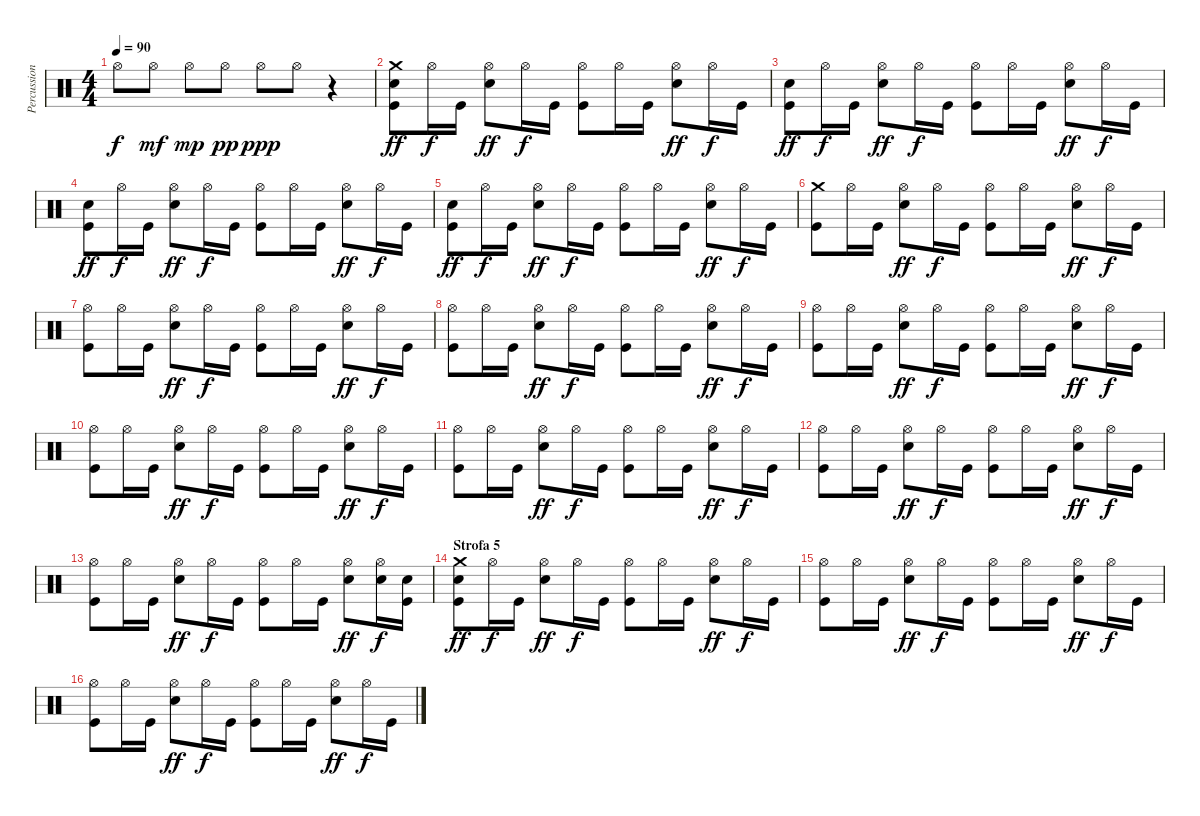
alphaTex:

\track ("Percussioni" "Percussion") {instrument percussion}
\staff {score}
\articulation defaults
\ts (4 4)
\tempo 90
\clef neutral
\ks c "Hi-Hat (open)".8{dy f} "Hi-Hat (open)".8{dy mf} "Hi-Hat (open)".8{dy mp} "Hi-Hat (open)".8{dy pp} "Hi-Hat (open)".8{dy ppp} "Hi-Hat (open)".8
r.4 |
("Crash medium (hit)" "Electric Snare (hit)" "Kick (hit)").8{dy ff} "Hi-Hat (open)".16{dy f} "Kick (hit)".16 ("Hi-Hat (open)" "Electric Snare (hit)").8{dy ff} "Hi-Hat (open)".16{dy f} "Kick (hit)".16 ("Hi-Hat (open)" "Kick (hit)").8 "Hi-Hat (open)".16 "Kick (hit)".16 ("Hi-Hat (open)" "Electric Snare (hit)").8{dy ff} "Hi-Hat (open)".16{dy f} "Kick (hit)".16 |
("Electric Snare (hit)" "Kick (hit)").8{dy ff} "Hi-Hat (open)".16{dy f} "Kick (hit)".16 ("Hi-Hat (open)" "Electric Snare (hit)").8{dy ff} "Hi-Hat (open)".16{dy f} "Kick (hit)".16 ("Hi-Hat (open)" "Kick (hit)").8 "Hi-Hat (open)".16 "Kick (hit)".16 ("Hi-Hat (open)" "Electric Snare (hit)").8{dy ff} "Hi-Hat (open)".16{dy f} "Kick (hit)".16 |
("Electric Snare (hit)" "Kick (hit)").8{dy ff} "Hi-Hat (open)".16{dy f} "Kick (hit)".16 ("Hi-Hat (open)" "Electric Snare (hit)").8{dy ff} "Hi-Hat (open)".16{dy f} "Kick (hit)".16 ("Hi-Hat (open)" "Kick (hit)").8 "Hi-Hat (open)".16 "Kick (hit)".16 ("Hi-Hat (open)" "Electric Snare (hit)").8{dy ff} "Hi-Hat (open)".16{dy f} "Kick (hit)".16 |
("Electric Snare (hit)" "Kick (hit)").8{dy ff} "Hi-Hat (open)".16{dy f} "Kick (hit)".16 ("Hi-Hat (open)" "Electric Snare (hit)").8{dy ff} "Hi-Hat (open)".16{dy f} "Kick (hit)".16 ("Hi-Hat (open)" "Kick (hit)").8 "Hi-Hat (open)".16 "Kick (hit)".16 ("Hi-Hat (open)" "Electric Snare (hit)").8{dy ff} "Hi-Hat (open)".16{dy f} "Kick (hit)".16 |
("Crash medium (hit)" "Kick (hit)").8 "Hi-Hat (open)".16 "Kick (hit)".16 ("Hi-Hat (open)" "Electric Snare (hit)").8{dy ff} "Hi-Hat (open)".16{dy f} "Kick (hit)".16 ("Hi-Hat (open)" "Kick (hit)").8 "Hi-Hat (open)".16 "Kick (hit)".16 ("Hi-Hat (open)" "Electric Snare (hit)").8{dy ff} "Hi-Hat (open)".16{dy f} "Kick (hit)".16 |
("Hi-Hat (open)" "Kick (hit)").8 "Hi-Hat (open)".16 "Kick (hit)".16 ("Hi-Hat (open)" "Electric Snare (hit)").8{dy ff} "Hi-Hat (open)".16{dy f} "Kick (hit)".16 ("Hi-Hat (open)" "Kick (hit)").8 "Hi-Hat (open)".16 "Kick (hit)".16 ("Hi-Hat (open)" "Electric Snare (hit)").8{dy ff} "Hi-Hat (open)".16{dy f} "Kick (hit)".16 |
("Hi-Hat (open)" "Kick (hit)").8 "Hi-Hat (open)".16 "Kick (hit)".16 ("Hi-Hat (open)" "Electric Snare (hit)").8{dy ff} "Hi-Hat (open)".16{dy f} "Kick (hit)".16 ("Hi-Hat (open)" "Kick (hit)").8 "Hi-Hat (open)".16 "Kick (hit)".16 ("Hi-Hat (open)" "Electric Snare (hit)").8{dy ff} "Hi-Hat (open)".16{dy f} "Kick (hit)".16 |
("Hi-Hat (open)" "Kick (hit)").8 "Hi-Hat (open)".16 "Kick (hit)".16 ("Hi-Hat (open)" "Electric Snare (hit)").8{dy ff} "Hi-Hat (open)".16{dy f} "Kick (hit)".16 ("Hi-Hat (open)" "Kick (hit)").8 "Hi-Hat (open)".16 "Kick (hit)".16 ("Hi-Hat (open)" "Electric Snare (hit)").8{dy ff} "Hi-Hat (open)".16{dy f} "Kick (hit)".16 |
("Hi-Hat (open)" "Kick (hit)").8 "Hi-Hat (open)".16 "Kick (hit)".16 ("Hi-Hat (open)" "Electric Snare (hit)").8{dy ff} "Hi-Hat (open)".16{dy f} "Kick (hit)".16 ("Hi-Hat (open)" "Kick (hit)").8 "Hi-Hat (open)".16 "Kick (hit)".16 ("Hi-Hat (open)" "Electric Snare (hit)").8{dy ff} "Hi-Hat (open)".16{dy f} "Kick (hit)".16 |
("Hi-Hat (open)" "Kick (hit)").8 "Hi-Hat (open)".16 "Kick (hit)".16 ("Hi-Hat (open)" "Electric Snare (hit)").8{dy ff} "Hi-Hat (open)".16{dy f} "Kick (hit)".16 ("Hi-Hat (open)" "Kick (hit)").8 "Hi-Hat (open)".16 "Kick (hit)".16 ("Hi-Hat (open)" "Electric Snare (hit)").8{dy ff} "Hi-Hat (open)".16{dy f} "Kick (hit)".16 |
("Hi-Hat (open)" "Kick (hit)").8 "Hi-Hat (open)".16 "Kick (hit)".16 ("Hi-Hat (open)" "Electric Snare (hit)").8{dy ff} "Hi-Hat (open)".16{dy f} "Kick (hit)".16 ("Hi-Hat (open)" "Kick (hit)").8 "Hi-Hat (open)".16 "Kick (hit)".16 ("Hi-Hat (open)" "Electric Snare (hit)").8{dy ff} "Hi-Hat (open)".16{dy f} "Kick (hit)".16 |
("Hi-Hat (open)" "Kick (hit)").8 "Hi-Hat (open)".16 "Kick (hit)".16 ("Hi-Hat (open)" "Electric Snare (hit)").8{dy ff} "Hi-Hat (open)".16{dy f} "Kick (hit)".16 ("Hi-Hat (open)" "Kick (hit)").8 "Hi-Hat (open)".16 "Kick (hit)".16 ("Hi-Hat (open)" "Electric Snare (hit)").8{dy ff} ("Hi-Hat (open)" "Electric Snare (hit)").16{dy f} ("Electric Snare (hit)" "Kick (hit)").16 |
\section ("" "Strofa 5")
("Crash medium (hit)" "Electric Snare (hit)" "Kick (hit)").8{dy ff} "Hi-Hat (open)".16{dy f} "Kick (hit)".16 ("Hi-Hat (open)" "Electric Snare (hit)").8{dy ff} "Hi-Hat (open)".16{dy f} "Kick (hit)".16 ("Hi-Hat (open)" "Kick (hit)").8 "Hi-Hat (open)".16 "Kick (hit)".16 ("Hi-Hat (open)" "Electric Snare (hit)").8{dy ff} "Hi-Hat (open)".16{dy f} "Kick (hit)".16 |
("Hi-Hat (open)" "Kick (hit)").8 "Hi-Hat (open)".16 "Kick (hit)".16 ("Hi-Hat (open)" "Electric Snare (hit)").8{dy ff} "Hi-Hat (open)".16{dy f} "Kick (hit)".16 ("Hi-Hat (open)" "Kick (hit)").8 "Hi-Hat (open)".16 "Kick (hit)".16 ("Hi-Hat (open)" "Electric Snare (hit)").8{dy ff} "Hi-Hat (open)".16{dy f} "Kick (hit)".16 |
("Hi-Hat (open)" "Kick (hit)").8 "Hi-Hat (open)".16 "Kick (hit)".16 ("Hi-Hat (open)" "Electric Snare (hit)").8{dy ff} "Hi-Hat (open)".16{dy f} "Kick (hit)".16 ("Hi-Hat (open)" "Kick (hit)").8 "Hi-Hat (open)".16 "Kick (hit)".16 ("Hi-Hat (open)" "Electric Snare (hit)").8{dy ff} "Hi-Hat (open)".16{dy f} "Kick (hit)".16
